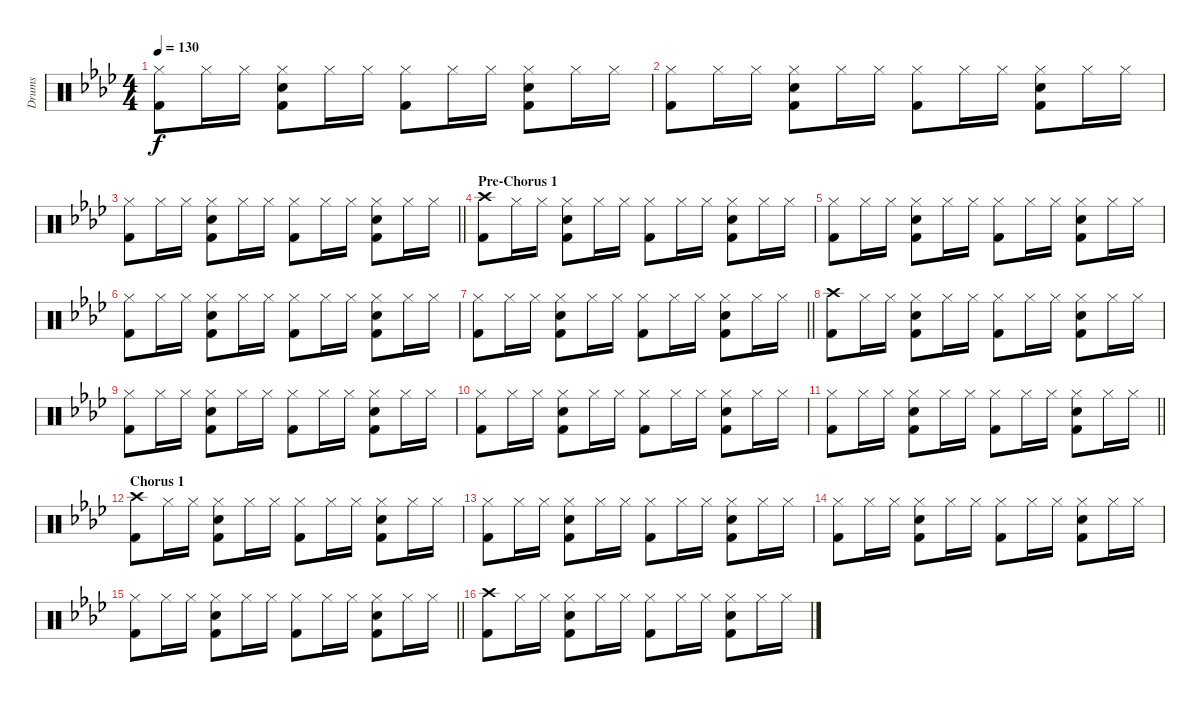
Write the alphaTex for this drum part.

\track ("Drums" "Drums") {instrument percussion}
\staff {score}
\articulation defaults
\ts (4 4)
\tempo 130
\clef neutral
\ks ab
("Hi-Hat (closed)" "Kick (hit) 2").8{dy f} "Hi-Hat (closed)".16 "Hi-Hat (closed)".16 ("Hi-Hat (closed)" "Snare (hit) 2" "Kick (hit) 2").8 "Hi-Hat (closed)".16 "Hi-Hat (closed)".16 ("Hi-Hat (closed)" "Kick (hit) 2").8 "Hi-Hat (closed)".16 "Hi-Hat (closed)".16 ("Hi-Hat (closed)" "Snare (hit) 2" "Kick (hit) 2").8 "Hi-Hat (closed)".16 "Hi-Hat (closed)".16 |
("Hi-Hat (closed)" "Kick (hit) 2").8 "Hi-Hat (closed)".16 "Hi-Hat (closed)".16 ("Hi-Hat (closed)" "Snare (hit) 2" "Kick (hit) 2").8 "Hi-Hat (closed)".16 "Hi-Hat (closed)".16 ("Hi-Hat (closed)" "Kick (hit) 2").8 "Hi-Hat (closed)".16 "Hi-Hat (closed)".16 ("Hi-Hat (closed)" "Snare (hit) 2" "Kick (hit) 2").8 "Hi-Hat (closed)".16 "Hi-Hat (closed)".16 |
\barLineRight lightlight
("Hi-Hat (closed)" "Kick (hit) 2").8 "Hi-Hat (closed)".16 "Hi-Hat (closed)".16 ("Hi-Hat (closed)" "Snare (hit) 2" "Kick (hit) 2").8 "Hi-Hat (closed)".16 "Hi-Hat (closed)".16 ("Hi-Hat (closed)" "Kick (hit) 2").8 "Hi-Hat (closed)".16 "Hi-Hat (closed)".16 ("Hi-Hat (closed)" "Snare (hit) 2" "Kick (hit) 2").8 "Hi-Hat (closed)".16 "Hi-Hat (closed)".16 |
\section ("" "Pre-Chorus 1")
("Crash high (hit)" "Kick (hit) 2").8 "Hi-Hat (closed)".16 "Hi-Hat (closed)".16 ("Hi-Hat (closed)" "Snare (hit) 2" "Kick (hit) 2").8 "Hi-Hat (closed)".16 "Hi-Hat (closed)".16 ("Hi-Hat (closed)" "Kick (hit) 2").8 "Hi-Hat (closed)".16 "Hi-Hat (closed)".16 ("Hi-Hat (closed)" "Snare (hit) 2" "Kick (hit) 2").8 "Hi-Hat (closed)".16 "Hi-Hat (closed)".16 |
("Hi-Hat (closed)" "Kick (hit) 2").8 "Hi-Hat (closed)".16 "Hi-Hat (closed)".16 ("Hi-Hat (closed)" "Snare (hit) 2" "Kick (hit) 2").8 "Hi-Hat (closed)".16 "Hi-Hat (closed)".16 ("Hi-Hat (closed)" "Kick (hit) 2").8 "Hi-Hat (closed)".16 "Hi-Hat (closed)".16 ("Hi-Hat (closed)" "Snare (hit) 2" "Kick (hit) 2").8 "Hi-Hat (closed)".16 "Hi-Hat (closed)".16 |
("Hi-Hat (closed)" "Kick (hit) 2").8 "Hi-Hat (closed)".16 "Hi-Hat (closed)".16 ("Hi-Hat (closed)" "Snare (hit) 2" "Kick (hit) 2").8 "Hi-Hat (closed)".16 "Hi-Hat (closed)".16 ("Hi-Hat (closed)" "Kick (hit) 2").8 "Hi-Hat (closed)".16 "Hi-Hat (closed)".16 ("Hi-Hat (closed)" "Snare (hit) 2" "Kick (hit) 2").8 "Hi-Hat (closed)".16 "Hi-Hat (closed)".16 |
\barLineRight lightlight
("Hi-Hat (closed)" "Kick (hit) 2").8 "Hi-Hat (closed)".16 "Hi-Hat (closed)".16 ("Hi-Hat (closed)" "Snare (hit) 2" "Kick (hit) 2").8 "Hi-Hat (closed)".16 "Hi-Hat (closed)".16 ("Hi-Hat (closed)" "Kick (hit) 2").8 "Hi-Hat (closed)".16 "Hi-Hat (closed)".16 ("Hi-Hat (closed)" "Snare (hit) 2" "Kick (hit) 2").8 "Hi-Hat (closed)".16 "Hi-Hat (closed)".16 |
("Crash high (hit)" "Kick (hit) 2").8 "Hi-Hat (closed)".16 "Hi-Hat (closed)".16 ("Hi-Hat (closed)" "Snare (hit) 2" "Kick (hit) 2").8 "Hi-Hat (closed)".16 "Hi-Hat (closed)".16 ("Hi-Hat (closed)" "Kick (hit) 2").8 "Hi-Hat (closed)".16 "Hi-Hat (closed)".16 ("Hi-Hat (closed)" "Snare (hit) 2" "Kick (hit) 2").8 "Hi-Hat (closed)".16 "Hi-Hat (closed)".16 |
("Hi-Hat (closed)" "Kick (hit) 2").8 "Hi-Hat (closed)".16 "Hi-Hat (closed)".16 ("Hi-Hat (closed)" "Snare (hit) 2" "Kick (hit) 2").8 "Hi-Hat (closed)".16 "Hi-Hat (closed)".16 ("Hi-Hat (closed)" "Kick (hit) 2").8 "Hi-Hat (closed)".16 "Hi-Hat (closed)".16 ("Hi-Hat (closed)" "Snare (hit) 2" "Kick (hit) 2").8 "Hi-Hat (closed)".16 "Hi-Hat (closed)".16 |
("Hi-Hat (closed)" "Kick (hit) 2").8 "Hi-Hat (closed)".16 "Hi-Hat (closed)".16 ("Hi-Hat (closed)" "Snare (hit) 2" "Kick (hit) 2").8 "Hi-Hat (closed)".16 "Hi-Hat (closed)".16 ("Hi-Hat (closed)" "Kick (hit) 2").8 "Hi-Hat (closed)".16 "Hi-Hat (closed)".16 ("Hi-Hat (closed)" "Snare (hit) 2" "Kick (hit) 2").8 "Hi-Hat (closed)".16 "Hi-Hat (closed)".16 |
\barLineRight lightlight
("Hi-Hat (closed)" "Kick (hit) 2").8 "Hi-Hat (closed)".16 "Hi-Hat (closed)".16 ("Hi-Hat (closed)" "Snare (hit) 2" "Kick (hit) 2").8 "Hi-Hat (closed)".16 "Hi-Hat (closed)".16 ("Hi-Hat (closed)" "Kick (hit) 2").8 "Hi-Hat (closed)".16 "Hi-Hat (closed)".16 ("Hi-Hat (closed)" "Snare (hit) 2" "Kick (hit) 2").8 "Hi-Hat (closed)".16 "Hi-Hat (closed)".16 |
\section ("" "Chorus 1")
("Crash high (hit)" "Kick (hit) 2").8 "Hi-Hat (closed)".16 "Hi-Hat (closed)".16 ("Hi-Hat (closed)" "Snare (hit) 2" "Kick (hit) 2").8 "Hi-Hat (closed)".16 "Hi-Hat (closed)".16 ("Hi-Hat (closed)" "Kick (hit) 2").8 "Hi-Hat (closed)".16 "Hi-Hat (closed)".16 ("Hi-Hat (closed)" "Snare (hit) 2" "Kick (hit) 2").8 "Hi-Hat (closed)".16 "Hi-Hat (closed)".16 |
("Hi-Hat (closed)" "Kick (hit) 2").8 "Hi-Hat (closed)".16 "Hi-Hat (closed)".16 ("Hi-Hat (closed)" "Snare (hit) 2" "Kick (hit) 2").8 "Hi-Hat (closed)".16 "Hi-Hat (closed)".16 ("Hi-Hat (closed)" "Kick (hit) 2").8 "Hi-Hat (closed)".16 "Hi-Hat (closed)".16 ("Hi-Hat (closed)" "Snare (hit) 2" "Kick (hit) 2").8 "Hi-Hat (closed)".16 "Hi-Hat (closed)".16 |
("Hi-Hat (closed)" "Kick (hit) 2").8 "Hi-Hat (closed)".16 "Hi-Hat (closed)".16 ("Hi-Hat (closed)" "Snare (hit) 2" "Kick (hit) 2").8 "Hi-Hat (closed)".16 "Hi-Hat (closed)".16 ("Hi-Hat (closed)" "Kick (hit) 2").8 "Hi-Hat (closed)".16 "Hi-Hat (closed)".16 ("Hi-Hat (closed)" "Snare (hit) 2" "Kick (hit) 2").8 "Hi-Hat (closed)".16 "Hi-Hat (closed)".16 |
\barLineRight lightlight
("Hi-Hat (closed)" "Kick (hit) 2").8 "Hi-Hat (closed)".16 "Hi-Hat (closed)".16 ("Hi-Hat (closed)" "Snare (hit) 2" "Kick (hit) 2").8 "Hi-Hat (closed)".16 "Hi-Hat (closed)".16 ("Hi-Hat (closed)" "Kick (hit) 2").8 "Hi-Hat (closed)".16 "Hi-Hat (closed)".16 ("Hi-Hat (closed)" "Snare (hit) 2" "Kick (hit) 2").8 "Hi-Hat (closed)".16 "Hi-Hat (closed)".16 |
("Crash high (hit)" "Kick (hit) 2").8 "Hi-Hat (closed)".16 "Hi-Hat (closed)".16 ("Hi-Hat (closed)" "Snare (hit) 2" "Kick (hit) 2").8 "Hi-Hat (closed)".16 "Hi-Hat (closed)".16 ("Hi-Hat (closed)" "Kick (hit) 2").8 "Hi-Hat (closed)".16 "Hi-Hat (closed)".16 ("Hi-Hat (closed)" "Snare (hit) 2" "Kick (hit) 2").8 "Hi-Hat (closed)".16 "Hi-Hat (closed)".16
